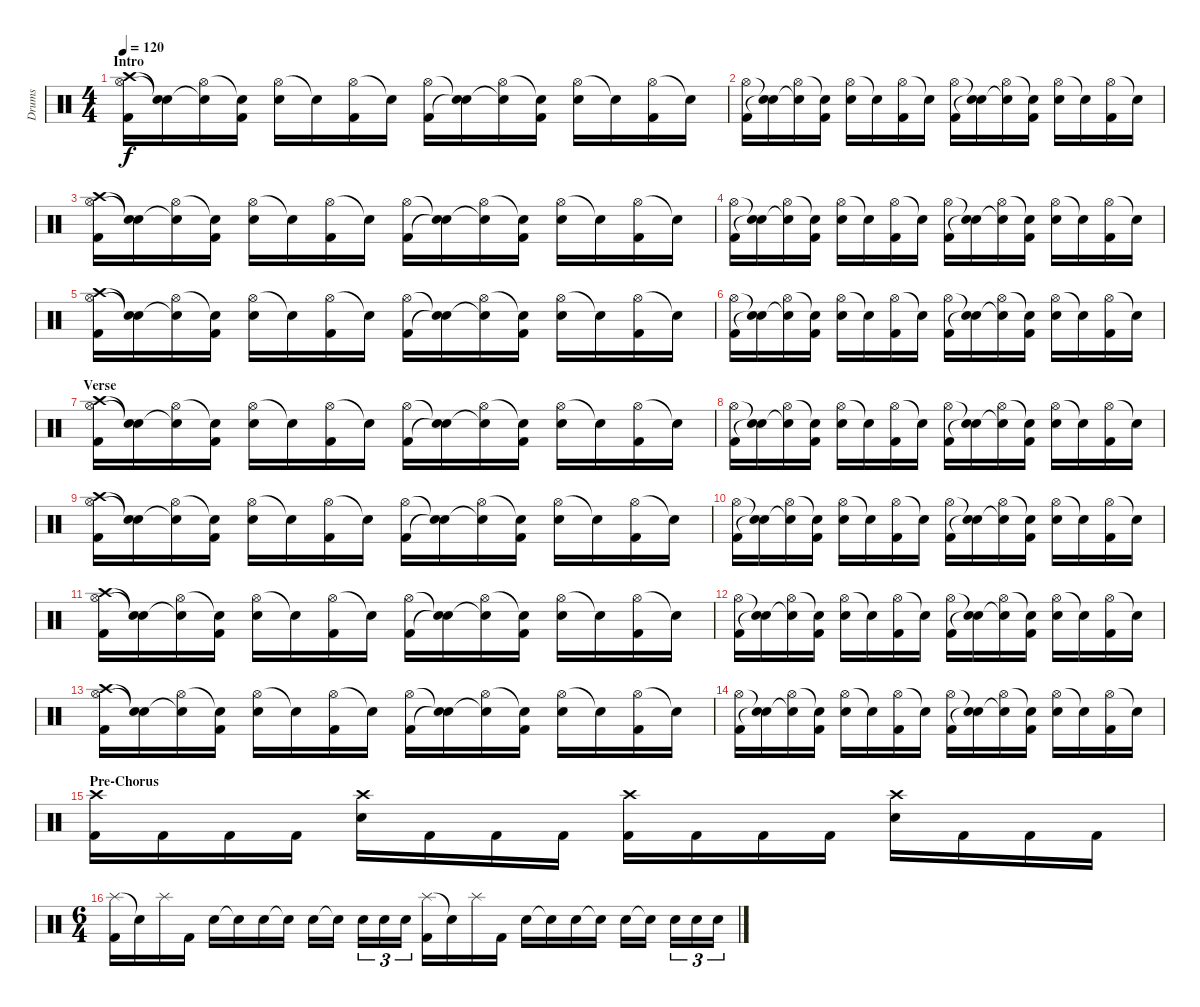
\track ("Drums" "Drums") {instrument percussion}
\staff {score}
\articulation defaults
\ts (4 4)
\section ("" "Intro")
\tempo 120
\clef neutral
\ks c
("Crash high (hit)" "Hi-Hat (open)" "Kick (hit) 2").16{dy f} ("Snare (hit)"{t} "Snare (hit)"{t}).16 ("Hi-Hat (open)" "Snare (hit)"{t}).16 ("Snare (hit)"{t} "Kick (hit) 2").16 ("Hi-Hat (open)" "Electric Snare (hit)").16 "Snare (hit)"{t}.16 ("Hi-Hat (open)" "Kick (hit) 2").16 "Snare (hit)"{t}.16 ("Hi-Hat (open)" "Kick (hit) 2").16 ("Snare (hit)"{t} "Snare (hit)"{t}).16 ("Hi-Hat (open)" "Snare (hit)"{t}).16 ("Snare (hit)"{t} "Kick (hit) 2").16 ("Hi-Hat (open)" "Electric Snare (hit)").16 "Snare (hit)"{t}.16 ("Hi-Hat (open)" "Kick (hit) 2").16 "Snare (hit)"{t}.16 |
("Hi-Hat (open)" "Kick (hit) 2").16 ("Snare (hit)"{t} "Snare (hit)"{t}).16 ("Hi-Hat (open)" "Snare (hit)"{t}).16 ("Snare (hit)"{t} "Kick (hit) 2").16 ("Hi-Hat (open)" "Electric Snare (hit)").16 "Snare (hit)"{t}.16 ("Hi-Hat (open)" "Kick (hit) 2").16 "Snare (hit)"{t}.16 ("Hi-Hat (open)" "Kick (hit) 2").16 ("Snare (hit)"{t} "Snare (hit)"{t}).16 ("Hi-Hat (open)" "Snare (hit)"{t}).16 ("Snare (hit)"{t} "Kick (hit) 2").16 ("Hi-Hat (open)" "Electric Snare (hit)").16 "Snare (hit)"{t}.16 ("Hi-Hat (open)" "Kick (hit) 2").16 "Snare (hit)"{t}.16 |
("Crash high (hit)" "Hi-Hat (open)" "Kick (hit) 2").16 ("Snare (hit)"{t} "Snare (hit)"{t}).16 ("Hi-Hat (open)" "Snare (hit)"{t}).16 ("Snare (hit)"{t} "Kick (hit) 2").16 ("Hi-Hat (open)" "Electric Snare (hit)").16 "Snare (hit)"{t}.16 ("Hi-Hat (open)" "Kick (hit) 2").16 "Snare (hit)"{t}.16 ("Hi-Hat (open)" "Kick (hit) 2").16 ("Snare (hit)"{t} "Snare (hit)"{t}).16 ("Hi-Hat (open)" "Snare (hit)"{t}).16 ("Snare (hit)"{t} "Kick (hit) 2").16 ("Hi-Hat (open)" "Electric Snare (hit)").16 "Snare (hit)"{t}.16 ("Hi-Hat (open)" "Kick (hit) 2").16 "Snare (hit)"{t}.16 |
("Hi-Hat (open)" "Kick (hit) 2").16 ("Snare (hit)"{t} "Snare (hit)"{t}).16 ("Hi-Hat (open)" "Snare (hit)"{t}).16 ("Snare (hit)"{t} "Kick (hit) 2").16 ("Hi-Hat (open)" "Electric Snare (hit)").16 "Snare (hit)"{t}.16 ("Hi-Hat (open)" "Kick (hit) 2").16 "Snare (hit)"{t}.16 ("Hi-Hat (open)" "Kick (hit) 2").16 ("Snare (hit)"{t} "Snare (hit)"{t}).16 ("Hi-Hat (open)" "Snare (hit)"{t}).16 ("Snare (hit)"{t} "Kick (hit) 2").16 ("Hi-Hat (open)" "Electric Snare (hit)").16 "Snare (hit)"{t}.16 ("Hi-Hat (open)" "Kick (hit) 2").16 "Snare (hit)"{t}.16 |
("Crash high (hit)" "Hi-Hat (open)" "Kick (hit) 2").16 ("Snare (hit)"{t} "Snare (hit)"{t}).16 ("Hi-Hat (open)" "Snare (hit)"{t}).16 ("Snare (hit)"{t} "Kick (hit) 2").16 ("Hi-Hat (open)" "Electric Snare (hit)").16 "Snare (hit)"{t}.16 ("Hi-Hat (open)" "Kick (hit) 2").16 "Snare (hit)"{t}.16 ("Hi-Hat (open)" "Kick (hit) 2").16 ("Snare (hit)"{t} "Snare (hit)"{t}).16 ("Hi-Hat (open)" "Snare (hit)"{t}).16 ("Snare (hit)"{t} "Kick (hit) 2").16 ("Hi-Hat (open)" "Electric Snare (hit)").16 "Snare (hit)"{t}.16 ("Hi-Hat (open)" "Kick (hit) 2").16 "Snare (hit)"{t}.16 |
("Hi-Hat (open)" "Kick (hit) 2").16 ("Snare (hit)"{t} "Snare (hit)"{t}).16 ("Hi-Hat (open)" "Snare (hit)"{t}).16 ("Snare (hit)"{t} "Kick (hit) 2").16 ("Hi-Hat (open)" "Electric Snare (hit)").16 "Snare (hit)"{t}.16 ("Hi-Hat (open)" "Kick (hit) 2").16 "Snare (hit)"{t}.16 ("Hi-Hat (open)" "Kick (hit) 2").16 ("Snare (hit)"{t} "Snare (hit)"{t}).16 ("Hi-Hat (open)" "Snare (hit)"{t}).16 ("Snare (hit)"{t} "Kick (hit) 2").16 ("Hi-Hat (open)" "Electric Snare (hit)").16 "Snare (hit)"{t}.16 ("Hi-Hat (open)" "Kick (hit) 2").16 "Snare (hit)"{t}.16 |
\section ("" "Verse")
("Crash high (hit)" "Hi-Hat (open)" "Kick (hit) 2").16 ("Snare (hit)"{t} "Snare (hit)"{t}).16 ("Hi-Hat (open)" "Snare (hit)"{t}).16 ("Snare (hit)"{t} "Kick (hit) 2").16 ("Hi-Hat (open)" "Electric Snare (hit)").16 "Snare (hit)"{t}.16 ("Hi-Hat (open)" "Kick (hit) 2").16 "Snare (hit)"{t}.16 ("Hi-Hat (open)" "Kick (hit) 2").16 ("Snare (hit)"{t} "Snare (hit)"{t}).16 ("Hi-Hat (open)" "Snare (hit)"{t}).16 ("Snare (hit)"{t} "Kick (hit) 2").16 ("Hi-Hat (open)" "Electric Snare (hit)").16 "Snare (hit)"{t}.16 ("Hi-Hat (open)" "Kick (hit) 2").16 "Snare (hit)"{t}.16 |
("Hi-Hat (open)" "Kick (hit) 2").16 ("Snare (hit)"{t} "Snare (hit)"{t}).16 ("Hi-Hat (open)" "Snare (hit)"{t}).16 ("Snare (hit)"{t} "Kick (hit) 2").16 ("Hi-Hat (open)" "Electric Snare (hit)").16 "Snare (hit)"{t}.16 ("Hi-Hat (open)" "Kick (hit) 2").16 "Snare (hit)"{t}.16 ("Hi-Hat (open)" "Kick (hit) 2").16 ("Snare (hit)"{t} "Snare (hit)"{t}).16 ("Hi-Hat (open)" "Snare (hit)"{t}).16 ("Snare (hit)"{t} "Kick (hit) 2").16 ("Hi-Hat (open)" "Electric Snare (hit)").16 "Snare (hit)"{t}.16 ("Hi-Hat (open)" "Kick (hit) 2").16 "Snare (hit)"{t}.16 |
("Crash high (hit)" "Hi-Hat (open)" "Kick (hit) 2").16 ("Snare (hit)"{t} "Snare (hit)"{t}).16 ("Hi-Hat (open)" "Snare (hit)"{t}).16 ("Snare (hit)"{t} "Kick (hit) 2").16 ("Hi-Hat (open)" "Electric Snare (hit)").16 "Snare (hit)"{t}.16 ("Hi-Hat (open)" "Kick (hit) 2").16 "Snare (hit)"{t}.16 ("Hi-Hat (open)" "Kick (hit) 2").16 ("Snare (hit)"{t} "Snare (hit)"{t}).16 ("Hi-Hat (open)" "Snare (hit)"{t}).16 ("Snare (hit)"{t} "Kick (hit) 2").16 ("Hi-Hat (open)" "Electric Snare (hit)").16 "Snare (hit)"{t}.16 ("Hi-Hat (open)" "Kick (hit) 2").16 "Snare (hit)"{t}.16 |
("Hi-Hat (open)" "Kick (hit) 2").16 ("Snare (hit)"{t} "Snare (hit)"{t}).16 ("Hi-Hat (open)" "Snare (hit)"{t}).16 ("Snare (hit)"{t} "Kick (hit) 2").16 ("Hi-Hat (open)" "Electric Snare (hit)").16 "Snare (hit)"{t}.16 ("Hi-Hat (open)" "Kick (hit) 2").16 "Snare (hit)"{t}.16 ("Hi-Hat (open)" "Kick (hit) 2").16 ("Snare (hit)"{t} "Snare (hit)"{t}).16 ("Hi-Hat (open)" "Snare (hit)"{t}).16 ("Snare (hit)"{t} "Kick (hit) 2").16 ("Hi-Hat (open)" "Electric Snare (hit)").16 "Snare (hit)"{t}.16 ("Hi-Hat (open)" "Kick (hit) 2").16 "Snare (hit)"{t}.16 |
("Crash high (hit)" "Hi-Hat (open)" "Kick (hit) 2").16 ("Snare (hit)"{t} "Snare (hit)"{t}).16 ("Hi-Hat (open)" "Snare (hit)"{t}).16 ("Snare (hit)"{t} "Kick (hit) 2").16 ("Hi-Hat (open)" "Electric Snare (hit)").16 "Snare (hit)"{t}.16 ("Hi-Hat (open)" "Kick (hit) 2").16 "Snare (hit)"{t}.16 ("Hi-Hat (open)" "Kick (hit) 2").16 ("Snare (hit)"{t} "Snare (hit)"{t}).16 ("Hi-Hat (open)" "Snare (hit)"{t}).16 ("Snare (hit)"{t} "Kick (hit) 2").16 ("Hi-Hat (open)" "Electric Snare (hit)").16 "Snare (hit)"{t}.16 ("Hi-Hat (open)" "Kick (hit) 2").16 "Snare (hit)"{t}.16 |
("Hi-Hat (open)" "Kick (hit) 2").16 ("Snare (hit)"{t} "Snare (hit)"{t}).16 ("Hi-Hat (open)" "Snare (hit)"{t}).16 ("Snare (hit)"{t} "Kick (hit) 2").16 ("Hi-Hat (open)" "Electric Snare (hit)").16 "Snare (hit)"{t}.16 ("Hi-Hat (open)" "Kick (hit) 2").16 "Snare (hit)"{t}.16 ("Hi-Hat (open)" "Kick (hit) 2").16 ("Snare (hit)"{t} "Snare (hit)"{t}).16 ("Hi-Hat (open)" "Snare (hit)"{t}).16 ("Snare (hit)"{t} "Kick (hit) 2").16 ("Hi-Hat (open)" "Electric Snare (hit)").16 "Snare (hit)"{t}.16 ("Hi-Hat (open)" "Kick (hit) 2").16 "Snare (hit)"{t}.16 |
("Crash high (hit)" "Hi-Hat (open)" "Kick (hit) 2").16 ("Snare (hit)"{t} "Snare (hit)"{t}).16 ("Hi-Hat (open)" "Snare (hit)"{t}).16 ("Snare (hit)"{t} "Kick (hit) 2").16 ("Hi-Hat (open)" "Electric Snare (hit)").16 "Snare (hit)"{t}.16 ("Hi-Hat (open)" "Kick (hit) 2").16 "Snare (hit)"{t}.16 ("Hi-Hat (open)" "Kick (hit) 2").16 ("Snare (hit)"{t} "Snare (hit)"{t}).16 ("Hi-Hat (open)" "Snare (hit)"{t}).16 ("Snare (hit)"{t} "Kick (hit) 2").16 ("Hi-Hat (open)" "Electric Snare (hit)").16 "Snare (hit)"{t}.16 ("Hi-Hat (open)" "Kick (hit) 2").16 "Snare (hit)"{t}.16 |
("Hi-Hat (open)" "Kick (hit) 2").16 ("Snare (hit)"{t} "Snare (hit)"{t}).16 ("Hi-Hat (open)" "Snare (hit)"{t}).16 ("Snare (hit)"{t} "Kick (hit) 2").16 ("Hi-Hat (open)" "Electric Snare (hit)").16 "Snare (hit)"{t}.16 ("Hi-Hat (open)" "Kick (hit) 2").16 "Snare (hit)"{t}.16 ("Hi-Hat (open)" "Kick (hit) 2").16 ("Snare (hit)"{t} "Snare (hit)"{t}).16 ("Hi-Hat (open)" "Snare (hit)"{t}).16 ("Snare (hit)"{t} "Kick (hit) 2").16 ("Hi-Hat (open)" "Electric Snare (hit)").16 "Snare (hit)"{t}.16 ("Hi-Hat (open)" "Kick (hit) 2").16 "Snare (hit)"{t}.16 |
\section ("" "Pre-Chorus")
("Crash high (hit)" "Kick (hit) 2").16 "Kick (hit) 2".16 "Kick (hit) 2".16 "Kick (hit) 2".16 ("Crash high (hit)" "Electric Snare (hit)").16 "Kick (hit) 2".16 "Kick (hit) 2".16 "Kick (hit) 2".16 ("Crash high (hit)" "Kick (hit) 2").16 "Kick (hit) 2".16 "Kick (hit) 2".16 "Kick (hit) 2".16 ("Crash high (hit)" "Electric Snare (hit)").16 "Kick (hit) 2".16 "Kick (hit) 2".16 "Kick (hit) 2".16 |
\ts (6 4)
("Splash (hit)" "Kick (hit) 2").16 "Snare (hit)"{t}.16 "Splash (hit)".16 "Kick (hit) 2".16 "Electric Snare (hit)".16 "Snare (hit)"{t}.16 "Electric Snare (hit)".16 "Snare (hit)"{t}.16 "Electric Snare (hit)".16 "Snare (hit)"{t}.16 "Electric Snare (hit)".16{tu (3 2)} "Electric Snare (hit)".16{tu (3 2)} "Electric Snare (hit)".16{tu (3 2)} ("Splash (hit)" "Kick (hit) 2").16 "Snare (hit)"{t}.16 "Splash (hit)".16 "Kick (hit) 2".16 "Electric Snare (hit)".16 "Snare (hit)"{t}.16 "Electric Snare (hit)".16 "Snare (hit)"{t}.16 "Electric Snare (hit)".16 "Snare (hit)"{t}.16 "Electric Snare (hit)".16{tu (3 2)} "Electric Snare (hit)".16{tu (3 2)} "Electric Snare (hit)".16{tu (3 2)}
